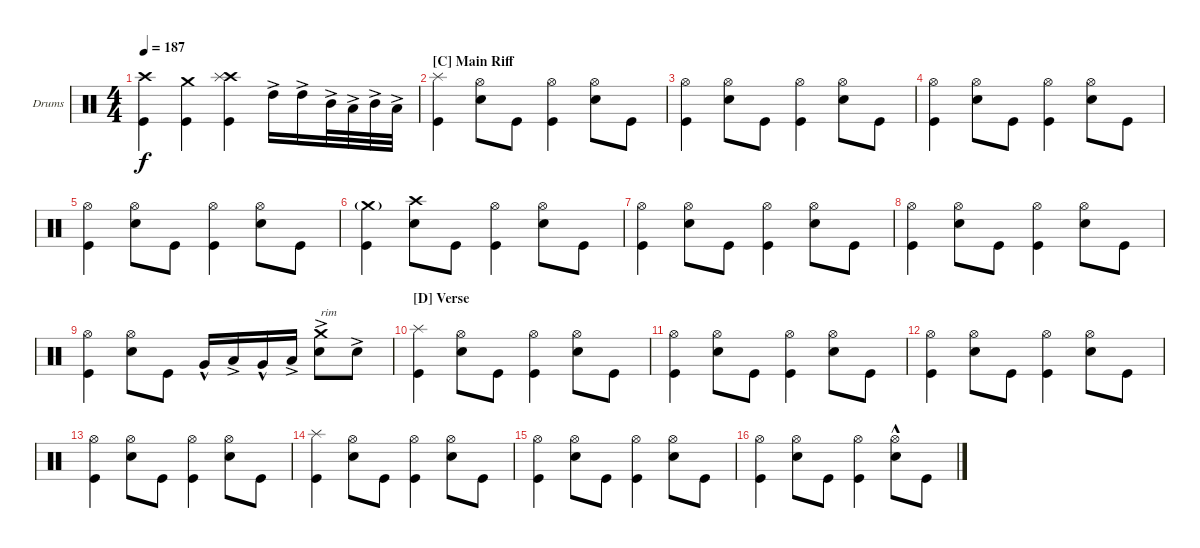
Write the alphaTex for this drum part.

\defaultSystemsLayout 4
\bracketExtendMode groupsimilarinstruments
\firstSystemTrackNameOrientation horizontal
\otherSystemsTrackNameOrientation horizontal
\track ("Drumkit" "Drums") {instrument percussion}
\staff {score}
\articulation defaults
\ts (4 4)
\tempo 187
\clef neutral
\scale
0.333333
\ks c
("Kick (hit)" "Crash high (hit)").4{dy f} ("Kick (hit)" "Crash medium (hit)").4 ("Kick (hit)" "Crash high (hit)" "Splash (hit)").4 "High Tom (hit)"{ac}.16 "High Tom (hit)"{ac}.16 "Mid Tom (hit)"{ac}.32 "Low Tom (hit)"{ac}.32 "Mid Tom (hit)"{ac}.32 "Low Tom (hit)"{ac}.32 |
\section ("C" "Main Riff")
\scale
0.333333 ("Kick (hit)" "Splash (hit)").4 ("Snare (hit) 2" "Hi-Hat (open)").8 "Kick (hit)".8 ("Kick (hit)" "Hi-Hat (open)").4 ("Snare (hit) 2" "Hi-Hat (open)").8 "Kick (hit)".8 |
\scale
0.333333 ("Kick (hit)" "Hi-Hat (open)").4 ("Snare (hit) 2" "Hi-Hat (open)").8 "Kick (hit)".8 ("Kick (hit)" "Hi-Hat (open)").4 ("Snare (hit) 2" "Hi-Hat (open)").8 "Kick (hit)".8 |
\scale
0.333333 ("Kick (hit)" "Hi-Hat (open)").4 ("Snare (hit) 2" "Hi-Hat (open)").8 "Kick (hit)".8 ("Kick (hit)" "Hi-Hat (open)").4 ("Snare (hit) 2" "Hi-Hat (open)").8 "Kick (hit)".8 |
\scale
0.333333 ("Kick (hit)" "Hi-Hat (open)").4 ("Snare (hit) 2" "Hi-Hat (open)").8 "Kick (hit)".8 ("Kick (hit)" "Hi-Hat (open)").4 ("Snare (hit) 2" "Hi-Hat (open)").8 "Kick (hit)".8 |
\scale
0.333333 ("Kick (hit)" "Crash medium (hit)"{g}).4 ("Snare (hit) 2" "Crash high (hit)").8 "Kick (hit)".8 ("Kick (hit)" "Hi-Hat (open)").4 ("Snare (hit) 2" "Hi-Hat (open)").8 "Kick (hit)".8 |
\scale
0.333333 ("Kick (hit)" "Hi-Hat (open)").4 ("Snare (hit) 2" "Hi-Hat (open)").8 "Kick (hit)".8 ("Kick (hit)" "Hi-Hat (open)").4 ("Snare (hit) 2" "Hi-Hat (open)").8 "Kick (hit)".8 |
\scale
0.333333 ("Kick (hit)" "Hi-Hat (open)").4 ("Snare (hit) 2" "Hi-Hat (open)").8 "Kick (hit)".8 ("Kick (hit)" "Hi-Hat (open)").4 ("Snare (hit) 2" "Hi-Hat (open)").8 "Kick (hit)".8 |
\scale
0.333333 ("Kick (hit)" "Hi-Hat (open)").4 ("Snare (hit) 2" "Hi-Hat (open)").8 "Kick (hit)".8 "Very Low Tom (hit)"{hac}.16 "Low Tom (hit)"{ac}.16 "Very Low Tom (hit)"{hac}.16 "Low Tom (hit)"{ac}.16 ("Snare (hit) 2"{ac} "Crash medium (hit)").8{txt "rim"} "Snare (hit) 2"{ac}.8 |
\section ("D" "Verse")
\scale
0.333333 ("Kick (hit)" "Splash (hit)").4 ("Snare (hit) 2" "Hi-Hat (open)").8 "Kick (hit)".8 ("Kick (hit)" "Hi-Hat (open)").4 ("Snare (hit) 2" "Hi-Hat (open)").8 "Kick (hit)".8 |
\scale
0.333333 ("Kick (hit)" "Hi-Hat (open)").4 ("Snare (hit) 2" "Hi-Hat (open)").8 "Kick (hit)".8 ("Kick (hit)" "Hi-Hat (open)").4 ("Snare (hit) 2" "Hi-Hat (open)").8 "Kick (hit)".8 |
\scale
0.333333 ("Kick (hit)" "Hi-Hat (open)").4 ("Snare (hit) 2" "Hi-Hat (open)").8 "Kick (hit)".8 ("Kick (hit)" "Hi-Hat (open)").4 ("Snare (hit) 2" "Hi-Hat (open)").8 "Kick (hit)".8 |
\scale
0.333333 ("Kick (hit)" "Hi-Hat (open)").4 ("Snare (hit) 2" "Hi-Hat (open)").8 "Kick (hit)".8 ("Kick (hit)" "Hi-Hat (open)").4 ("Snare (hit) 2" "Hi-Hat (open)").8 "Kick (hit)".8 |
\scale
0.333333 ("Kick (hit)" "Splash (hit)").4 ("Snare (hit) 2" "Hi-Hat (open)").8 "Kick (hit)".8 ("Kick (hit)" "Hi-Hat (open)").4 ("Snare (hit) 2" "Hi-Hat (open)").8 "Kick (hit)".8 |
\scale
0.333333 ("Kick (hit)" "Hi-Hat (open)").4 ("Snare (hit) 2" "Hi-Hat (open)").8 "Kick (hit)".8 ("Kick (hit)" "Hi-Hat (open)").4 ("Snare (hit) 2" "Hi-Hat (open)").8 "Kick (hit)".8 |
\scale
0.333333 ("Kick (hit)" "Hi-Hat (open)").4 ("Snare (hit) 2" "Hi-Hat (open)").8 "Kick (hit)".8 ("Kick (hit)" "Hi-Hat (open)").4 ("Snare (hit) 2" "Hi-Hat (open)"{hac}).8 "Kick (hit)".8
